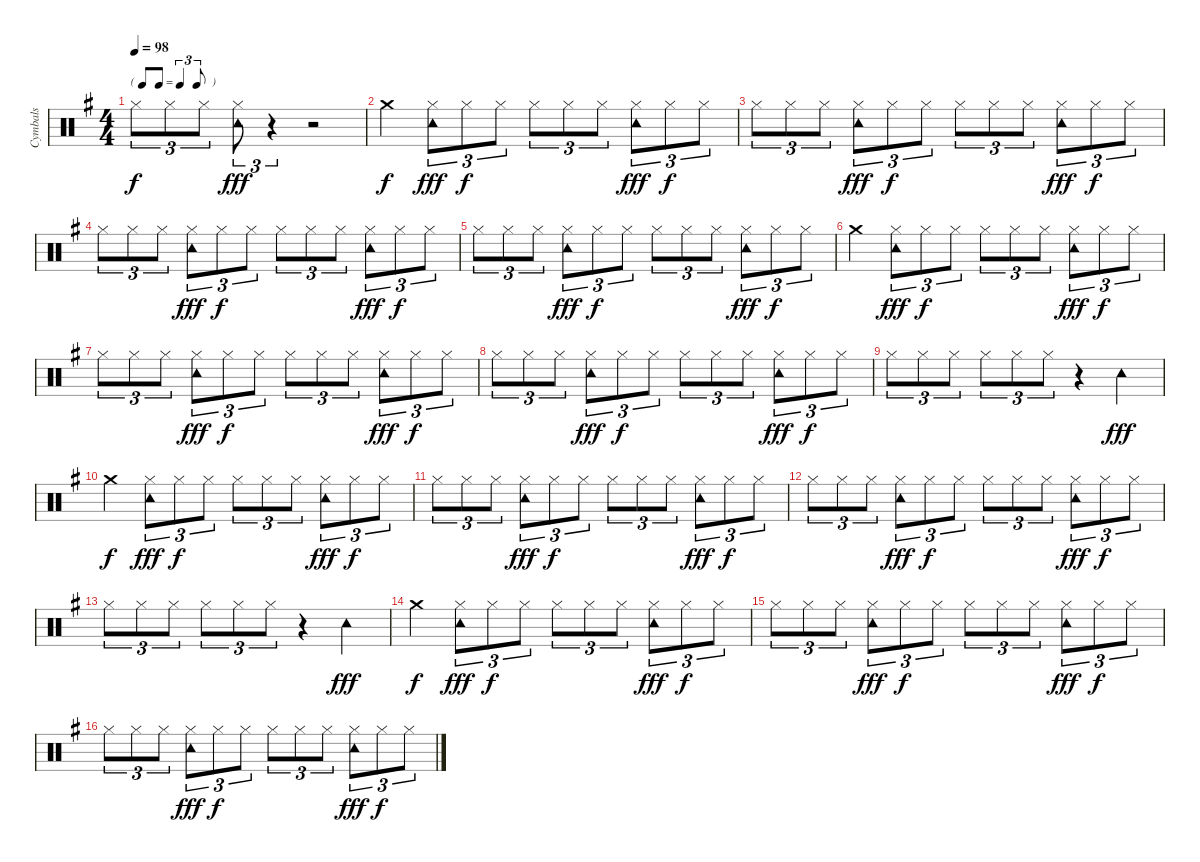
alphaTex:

\track ("Cymbals" "Cymbals") {instrument percussion}
\staff {score}
\articulation defaults
\ts (4 4)
\tf triplet8th
\tempo 98
\clef neutral
\ks g "Hi-Hat (closed)".8{tu (3 2) dy f} "Hi-Hat (closed)".8{tu (3 2)} "Hi-Hat (closed)".8{tu (3 2)}
("Hi-Hat (closed)" "Tambourine (hit)").8{tu (3 2) dy fff} r.4{tu (3 2)} r.2 |
"Crash medium (hit)".4{dy f} ("Hi-Hat (closed)" "Tambourine (hit)").8{tu (3 2) dy fff} "Hi-Hat (closed)".8{tu (3 2) dy f} "Hi-Hat (closed)".8{tu (3 2)} "Hi-Hat (closed)".8{tu (3 2)} "Hi-Hat (closed)".8{tu (3 2)} "Hi-Hat (closed)".8{tu (3 2)} ("Hi-Hat (closed)" "Tambourine (hit)").8{tu (3 2) dy fff} "Hi-Hat (closed)".8{tu (3 2) dy f} "Hi-Hat (closed)".8{tu (3 2)} |
"Hi-Hat (closed)".8{tu (3 2)} "Hi-Hat (closed)".8{tu (3 2)} "Hi-Hat (closed)".8{tu (3 2)} ("Hi-Hat (closed)" "Tambourine (hit)").8{tu (3 2) dy fff} "Hi-Hat (closed)".8{tu (3 2) dy f} "Hi-Hat (closed)".8{tu (3 2)} "Hi-Hat (closed)".8{tu (3 2)} "Hi-Hat (closed)".8{tu (3 2)} "Hi-Hat (closed)".8{tu (3 2)} ("Hi-Hat (closed)" "Tambourine (hit)").8{tu (3 2) dy fff} "Hi-Hat (closed)".8{tu (3 2) dy f} "Hi-Hat (closed)".8{tu (3 2)} |
"Hi-Hat (closed)".8{tu (3 2)} "Hi-Hat (closed)".8{tu (3 2)} "Hi-Hat (closed)".8{tu (3 2)} ("Hi-Hat (closed)" "Tambourine (hit)").8{tu (3 2) dy fff} "Hi-Hat (closed)".8{tu (3 2) dy f} "Hi-Hat (closed)".8{tu (3 2)} "Hi-Hat (closed)".8{tu (3 2)} "Hi-Hat (closed)".8{tu (3 2)} "Hi-Hat (closed)".8{tu (3 2)} ("Hi-Hat (closed)" "Tambourine (hit)").8{tu (3 2) dy fff} "Hi-Hat (closed)".8{tu (3 2) dy f} "Hi-Hat (closed)".8{tu (3 2)} |
"Hi-Hat (closed)".8{tu (3 2)} "Hi-Hat (closed)".8{tu (3 2)} "Hi-Hat (closed)".8{tu (3 2)} ("Hi-Hat (closed)" "Tambourine (hit)").8{tu (3 2) dy fff} "Hi-Hat (closed)".8{tu (3 2) dy f} "Hi-Hat (closed)".8{tu (3 2)} "Hi-Hat (closed)".8{tu (3 2)} "Hi-Hat (closed)".8{tu (3 2)} "Hi-Hat (closed)".8{tu (3 2)} ("Hi-Hat (closed)" "Tambourine (hit)").8{tu (3 2) dy fff} "Hi-Hat (closed)".8{tu (3 2) dy f} "Hi-Hat (closed)".8{tu (3 2)} |
"Crash medium (hit)".4 ("Hi-Hat (closed)" "Tambourine (hit)").8{tu (3 2) dy fff} "Hi-Hat (closed)".8{tu (3 2) dy f} "Hi-Hat (closed)".8{tu (3 2)} "Hi-Hat (closed)".8{tu (3 2)} "Hi-Hat (closed)".8{tu (3 2)} "Hi-Hat (closed)".8{tu (3 2)} ("Hi-Hat (closed)" "Tambourine (hit)").8{tu (3 2) dy fff} "Hi-Hat (closed)".8{tu (3 2) dy f} "Hi-Hat (closed)".8{tu (3 2)} |
"Hi-Hat (closed)".8{tu (3 2)} "Hi-Hat (closed)".8{tu (3 2)} "Hi-Hat (closed)".8{tu (3 2)} ("Hi-Hat (closed)" "Tambourine (hit)").8{tu (3 2) dy fff} "Hi-Hat (closed)".8{tu (3 2) dy f} "Hi-Hat (closed)".8{tu (3 2)} "Hi-Hat (closed)".8{tu (3 2)} "Hi-Hat (closed)".8{tu (3 2)} "Hi-Hat (closed)".8{tu (3 2)} ("Hi-Hat (closed)" "Tambourine (hit)").8{tu (3 2) dy fff} "Hi-Hat (closed)".8{tu (3 2) dy f} "Hi-Hat (closed)".8{tu (3 2)} |
"Hi-Hat (closed)".8{tu (3 2)} "Hi-Hat (closed)".8{tu (3 2)} "Hi-Hat (closed)".8{tu (3 2)} ("Hi-Hat (closed)" "Tambourine (hit)").8{tu (3 2) dy fff} "Hi-Hat (closed)".8{tu (3 2) dy f} "Hi-Hat (closed)".8{tu (3 2)} "Hi-Hat (closed)".8{tu (3 2)} "Hi-Hat (closed)".8{tu (3 2)} "Hi-Hat (closed)".8{tu (3 2)} ("Hi-Hat (closed)" "Tambourine (hit)").8{tu (3 2) dy fff} "Hi-Hat (closed)".8{tu (3 2) dy f} "Hi-Hat (closed)".8{tu (3 2)} |
"Hi-Hat (closed)".8{tu (3 2)} "Hi-Hat (closed)".8{tu (3 2)} "Hi-Hat (closed)".8{tu (3 2)} "Hi-Hat (closed)".8{tu (3 2)} "Hi-Hat (closed)".8{tu (3 2)} "Hi-Hat (closed)".8{tu (3 2)} r.4 "Tambourine (hit)".4{dy fff} |
"Crash medium (hit)".4{dy f} ("Hi-Hat (closed)" "Tambourine (hit)").8{tu (3 2) dy fff} "Hi-Hat (closed)".8{tu (3 2) dy f} "Hi-Hat (closed)".8{tu (3 2)} "Hi-Hat (closed)".8{tu (3 2)} "Hi-Hat (closed)".8{tu (3 2)} "Hi-Hat (closed)".8{tu (3 2)} ("Hi-Hat (closed)" "Tambourine (hit)").8{tu (3 2) dy fff} "Hi-Hat (closed)".8{tu (3 2) dy f} "Hi-Hat (closed)".8{tu (3 2)} |
"Hi-Hat (closed)".8{tu (3 2)} "Hi-Hat (closed)".8{tu (3 2)} "Hi-Hat (closed)".8{tu (3 2)} ("Hi-Hat (closed)" "Tambourine (hit)").8{tu (3 2) dy fff} "Hi-Hat (closed)".8{tu (3 2) dy f} "Hi-Hat (closed)".8{tu (3 2)} "Hi-Hat (closed)".8{tu (3 2)} "Hi-Hat (closed)".8{tu (3 2)} "Hi-Hat (closed)".8{tu (3 2)} ("Hi-Hat (closed)" "Tambourine (hit)").8{tu (3 2) dy fff} "Hi-Hat (closed)".8{tu (3 2) dy f} "Hi-Hat (closed)".8{tu (3 2)} |
"Hi-Hat (closed)".8{tu (3 2)} "Hi-Hat (closed)".8{tu (3 2)} "Hi-Hat (closed)".8{tu (3 2)} ("Hi-Hat (closed)" "Tambourine (hit)").8{tu (3 2) dy fff} "Hi-Hat (closed)".8{tu (3 2) dy f} "Hi-Hat (closed)".8{tu (3 2)} "Hi-Hat (closed)".8{tu (3 2)} "Hi-Hat (closed)".8{tu (3 2)} "Hi-Hat (closed)".8{tu (3 2)} ("Hi-Hat (closed)" "Tambourine (hit)").8{tu (3 2) dy fff} "Hi-Hat (closed)".8{tu (3 2) dy f} "Hi-Hat (closed)".8{tu (3 2)} |
"Hi-Hat (closed)".8{tu (3 2)} "Hi-Hat (closed)".8{tu (3 2)} "Hi-Hat (closed)".8{tu (3 2)} "Hi-Hat (closed)".8{tu (3 2)} "Hi-Hat (closed)".8{tu (3 2)} "Hi-Hat (closed)".8{tu (3 2)} r.4 "Tambourine (hit)".4{dy fff} |
"Crash medium (hit)".4{dy f} ("Hi-Hat (closed)" "Tambourine (hit)").8{tu (3 2) dy fff} "Hi-Hat (closed)".8{tu (3 2) dy f} "Hi-Hat (closed)".8{tu (3 2)} "Hi-Hat (closed)".8{tu (3 2)} "Hi-Hat (closed)".8{tu (3 2)} "Hi-Hat (closed)".8{tu (3 2)} ("Hi-Hat (closed)" "Tambourine (hit)").8{tu (3 2) dy fff} "Hi-Hat (closed)".8{tu (3 2) dy f} "Hi-Hat (closed)".8{tu (3 2)} |
"Hi-Hat (closed)".8{tu (3 2)} "Hi-Hat (closed)".8{tu (3 2)} "Hi-Hat (closed)".8{tu (3 2)} ("Hi-Hat (closed)" "Tambourine (hit)").8{tu (3 2) dy fff} "Hi-Hat (closed)".8{tu (3 2) dy f} "Hi-Hat (closed)".8{tu (3 2)} "Hi-Hat (closed)".8{tu (3 2)} "Hi-Hat (closed)".8{tu (3 2)} "Hi-Hat (closed)".8{tu (3 2)} ("Hi-Hat (closed)" "Tambourine (hit)").8{tu (3 2) dy fff} "Hi-Hat (closed)".8{tu (3 2) dy f} "Hi-Hat (closed)".8{tu (3 2)} |
"Hi-Hat (closed)".8{tu (3 2)} "Hi-Hat (closed)".8{tu (3 2)} "Hi-Hat (closed)".8{tu (3 2)} ("Hi-Hat (closed)" "Tambourine (hit)").8{tu (3 2) dy fff} "Hi-Hat (closed)".8{tu (3 2) dy f} "Hi-Hat (closed)".8{tu (3 2)} "Hi-Hat (closed)".8{tu (3 2)} "Hi-Hat (closed)".8{tu (3 2)} "Hi-Hat (closed)".8{tu (3 2)} ("Hi-Hat (closed)" "Tambourine (hit)").8{tu (3 2) dy fff} "Hi-Hat (closed)".8{tu (3 2) dy f} "Hi-Hat (closed)".8{tu (3 2)}
